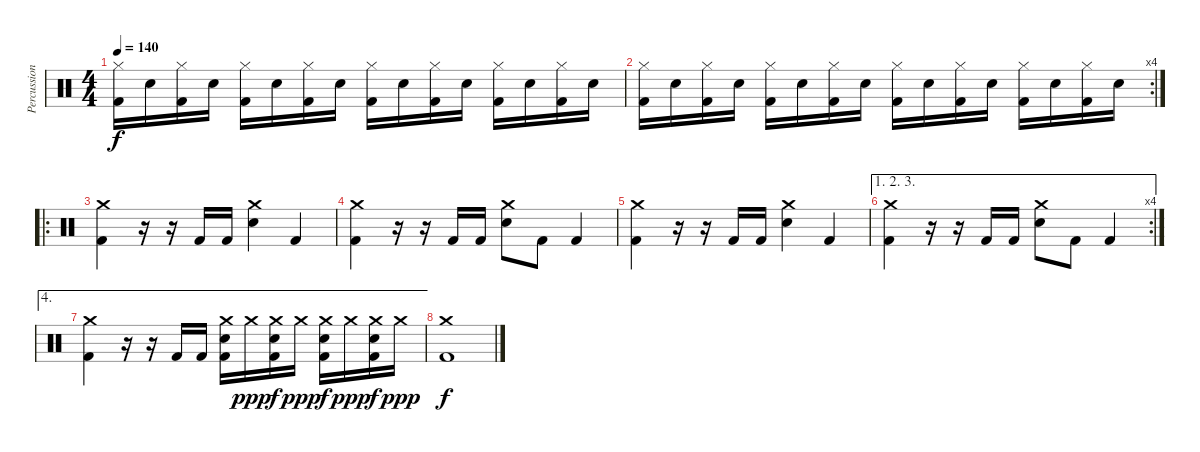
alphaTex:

\track ("Percussion" "Percussion") {instrument percussion}
\staff {score}
\articulation defaults
\ts (4 4)
\tempo 140
\clef neutral
\ks c
("Hi-Hat (closed)" "Kick (hit) 2").16{dy f} "Electric Snare (hit)".16 ("Hi-Hat (closed)" "Kick (hit) 2").16 "Electric Snare (hit)".16 ("Hi-Hat (closed)" "Kick (hit) 2").16 "Electric Snare (hit)".16 ("Hi-Hat (closed)" "Kick (hit) 2").16 "Electric Snare (hit)".16 ("Hi-Hat (closed)" "Kick (hit) 2").16 "Electric Snare (hit)".16 ("Hi-Hat (closed)" "Kick (hit) 2").16 "Electric Snare (hit)".16 ("Hi-Hat (closed)" "Kick (hit) 2").16 "Electric Snare (hit)".16 ("Hi-Hat (closed)" "Kick (hit) 2").16 "Electric Snare (hit)".16 |
\rc 4
("Hi-Hat (closed)" "Kick (hit) 2").16 "Electric Snare (hit)".16 ("Hi-Hat (closed)" "Kick (hit) 2").16 "Electric Snare (hit)".16 ("Hi-Hat (closed)" "Kick (hit) 2").16 "Electric Snare (hit)".16 ("Hi-Hat (closed)" "Kick (hit) 2").16 "Electric Snare (hit)".16 ("Hi-Hat (closed)" "Kick (hit) 2").16 "Electric Snare (hit)".16 ("Hi-Hat (closed)" "Kick (hit) 2").16 "Electric Snare (hit)".16 ("Hi-Hat (closed)" "Kick (hit) 2").16 "Electric Snare (hit)".16 ("Hi-Hat (closed)" "Kick (hit) 2").16 "Electric Snare (hit)".16 |
\ro
("Crash medium (hit)" "Kick (hit) 2").4 r.16 r.16 "Kick (hit) 2".16 "Kick (hit) 2".16 ("Crash medium (hit)" "Electric Snare (hit)").4 "Kick (hit) 2".4 |
("Crash medium (hit)" "Kick (hit) 2").4 r.16 r.16 "Kick (hit) 2".16 "Kick (hit) 2".16 ("Crash medium (hit)" "Electric Snare (hit)").8 "Kick (hit) 2".8 "Kick (hit) 2".4 |
("Crash medium (hit)" "Kick (hit) 2").4 r.16 r.16 "Kick (hit) 2".16 "Kick (hit) 2".16 ("Crash medium (hit)" "Electric Snare (hit)").4 "Kick (hit) 2".4 |
\ae (1 2 3)
\rc 4
("Crash medium (hit)" "Kick (hit) 2").4 r.16 r.16 "Kick (hit) 2".16 "Kick (hit) 2".16 ("Crash medium (hit)" "Electric Snare (hit)").8 "Kick (hit) 2".8 "Kick (hit) 2".4 |
\ae 4
("Crash medium (hit)" "Kick (hit) 2").4 r.16 r.16 "Kick (hit) 2".16 "Kick (hit) 2".16 ("Crash medium (hit)" "Electric Snare (hit)" "Kick (hit) 2").16 "Crash medium (hit)".16{dy ppp} ("Crash medium (hit)" "Electric Snare (hit)" "Kick (hit) 2").16{dy f} "Crash medium (hit)".16{dy ppp} ("Crash medium (hit)" "Electric Snare (hit)" "Kick (hit) 2").16{dy f} "Crash medium (hit)".16{dy ppp} ("Crash medium (hit)" "Electric Snare (hit)" "Kick (hit) 2").16{dy f} "Crash medium (hit)".16{dy ppp} |
("Crash medium (hit)" "Kick (hit) 2").1{dy f}
